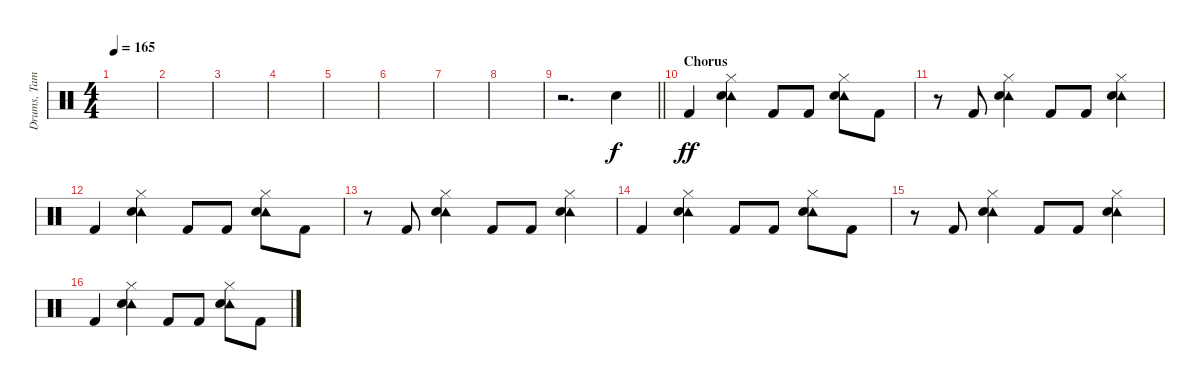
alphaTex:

\track ("Drums, Tambourine, Castinets" "Drums, Tam") {instrument percussion}
\staff {score}
\articulation defaults
\ts (4 4)
\tempo 165
\clef neutral
\ks c
|
|
|
|
|
|
|
|
\barLineRight lightlight
r.2{d} "Snare (hit) 2".4{dy f} |
\section ("" "Chorus")
"Kick (hit) 2".4{dy ff} ("Tambourine (hit)" "Hi-Hat (closed)" "Snare (hit) 2").4 "Kick (hit) 2".8 "Kick (hit) 2".8 ("Tambourine (hit)" "Hi-Hat (closed)" "Snare (hit) 2").8 "Kick (hit) 2".8 |
r.8 "Kick (hit) 2".8 ("Tambourine (hit)" "Hi-Hat (closed)" "Snare (hit) 2").4 "Kick (hit) 2".8 "Kick (hit) 2".8 ("Tambourine (hit)" "Hi-Hat (closed)" "Snare (hit) 2").4 |
"Kick (hit) 2".4 ("Tambourine (hit)" "Hi-Hat (closed)" "Snare (hit) 2").4 "Kick (hit) 2".8 "Kick (hit) 2".8 ("Tambourine (hit)" "Hi-Hat (closed)" "Snare (hit) 2").8 "Kick (hit) 2".8 |
r.8 "Kick (hit) 2".8 ("Tambourine (hit)" "Hi-Hat (closed)" "Snare (hit) 2").4 "Kick (hit) 2".8 "Kick (hit) 2".8 ("Tambourine (hit)" "Hi-Hat (closed)" "Snare (hit) 2").4 |
"Kick (hit) 2".4 ("Tambourine (hit)" "Hi-Hat (closed)" "Snare (hit) 2").4 "Kick (hit) 2".8 "Kick (hit) 2".8 ("Tambourine (hit)" "Hi-Hat (closed)" "Snare (hit) 2").8 "Kick (hit) 2".8 |
r.8 "Kick (hit) 2".8 ("Tambourine (hit)" "Hi-Hat (closed)" "Snare (hit) 2").4 "Kick (hit) 2".8 "Kick (hit) 2".8 ("Tambourine (hit)" "Hi-Hat (closed)" "Snare (hit) 2").4 |
"Kick (hit) 2".4 ("Tambourine (hit)" "Hi-Hat (closed)" "Snare (hit) 2").4 "Kick (hit) 2".8 "Kick (hit) 2".8 ("Tambourine (hit)" "Hi-Hat (closed)" "Snare (hit) 2").8 "Kick (hit) 2".8
